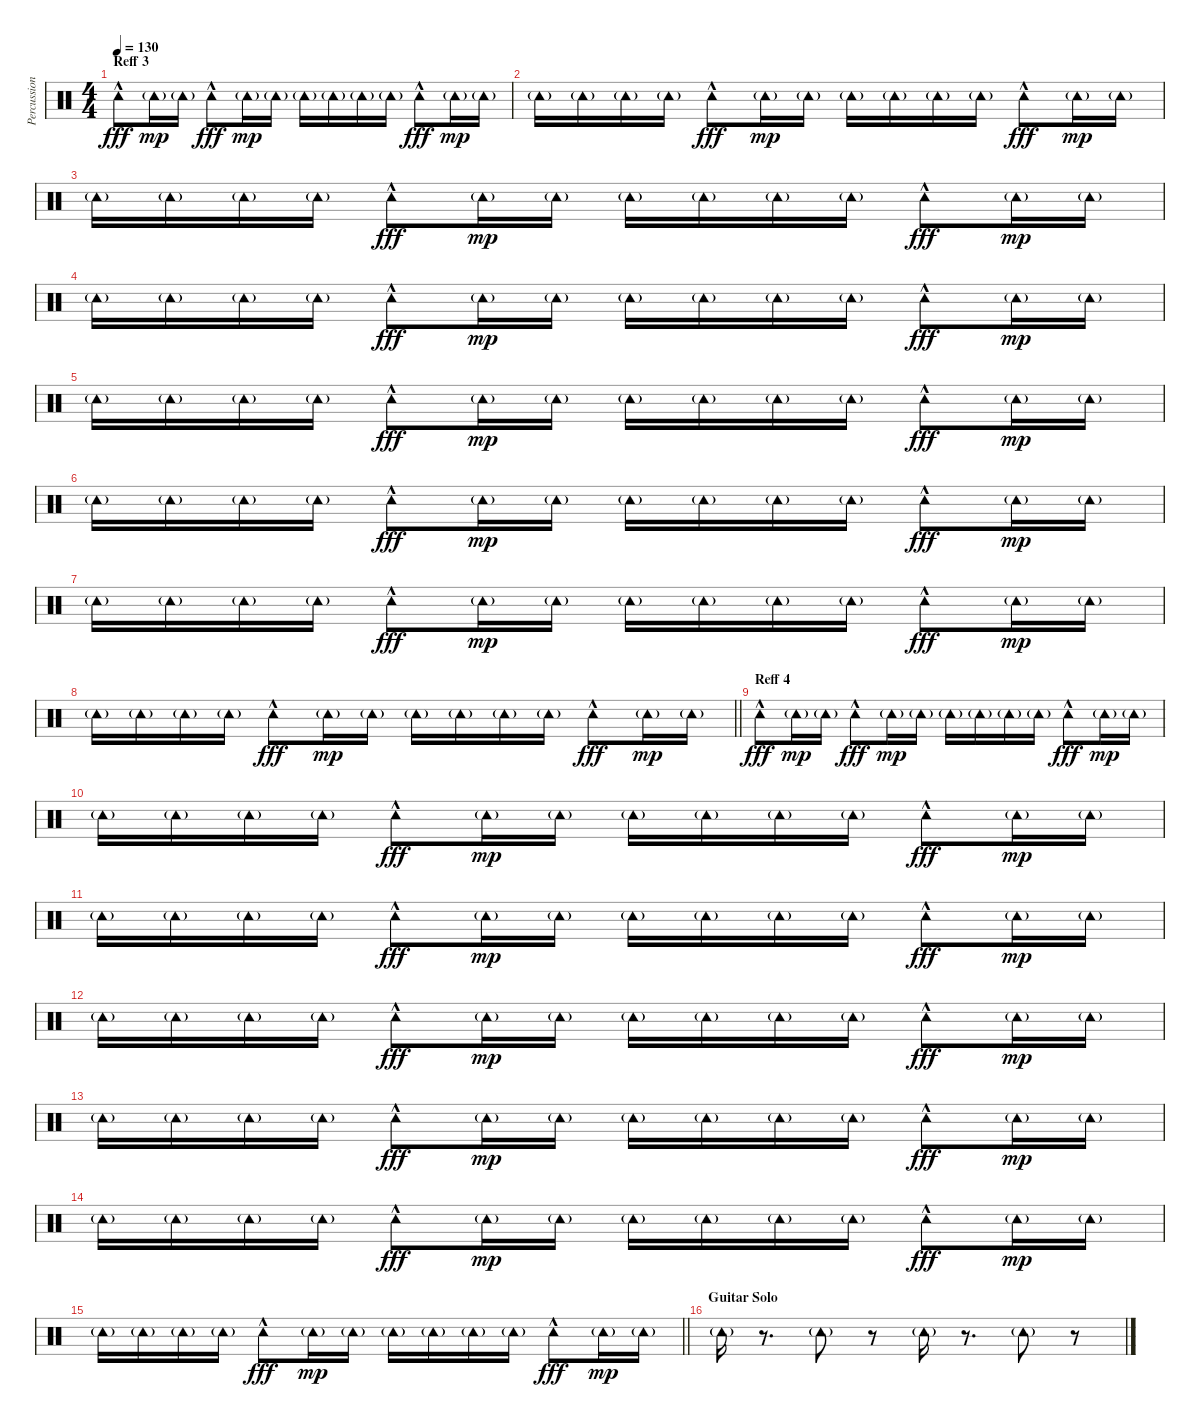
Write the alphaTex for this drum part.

\track ("Percussion 2" "Percussion") {instrument percussion}
\staff {score}
\articulation defaults
\ts (4 4)
\section ("" "Reff 3")
\tempo 130
\clef neutral
\ks c "Tambourine (hit)"{hac}.8{dy fff} "Tambourine (hit)"{g}.16{dy mp} "Tambourine (hit)"{g}.16 "Tambourine (hit)"{hac}.8{dy fff} "Tambourine (hit)"{g}.16{dy mp} "Tambourine (hit)"{g}.16 "Tambourine (hit)"{g}.16 "Tambourine (hit)"{g}.16 "Tambourine (hit)"{g}.16 "Tambourine (hit)"{g}.16 "Tambourine (hit)"{hac}.8{dy fff} "Tambourine (hit)"{g}.16{dy mp} "Tambourine (hit)"{g}.16
|
"Tambourine (hit)"{g}.16 "Tambourine (hit)"{g}.16 "Tambourine (hit)"{g}.16 "Tambourine (hit)"{g}.16 "Tambourine (hit)"{hac}.8{dy fff} "Tambourine (hit)"{g}.16{dy mp} "Tambourine (hit)"{g}.16 "Tambourine (hit)"{g}.16 "Tambourine (hit)"{g}.16 "Tambourine (hit)"{g}.16 "Tambourine (hit)"{g}.16 "Tambourine (hit)"{hac}.8{dy fff} "Tambourine (hit)"{g}.16{dy mp} "Tambourine (hit)"{g}.16 |
"Tambourine (hit)"{g}.16 "Tambourine (hit)"{g}.16 "Tambourine (hit)"{g}.16 "Tambourine (hit)"{g}.16 "Tambourine (hit)"{hac}.8{dy fff} "Tambourine (hit)"{g}.16{dy mp} "Tambourine (hit)"{g}.16 "Tambourine (hit)"{g}.16 "Tambourine (hit)"{g}.16 "Tambourine (hit)"{g}.16 "Tambourine (hit)"{g}.16 "Tambourine (hit)"{hac}.8{dy fff} "Tambourine (hit)"{g}.16{dy mp} "Tambourine (hit)"{g}.16 |
"Tambourine (hit)"{g}.16 "Tambourine (hit)"{g}.16 "Tambourine (hit)"{g}.16 "Tambourine (hit)"{g}.16 "Tambourine (hit)"{hac}.8{dy fff} "Tambourine (hit)"{g}.16{dy mp} "Tambourine (hit)"{g}.16 "Tambourine (hit)"{g}.16 "Tambourine (hit)"{g}.16 "Tambourine (hit)"{g}.16 "Tambourine (hit)"{g}.16 "Tambourine (hit)"{hac}.8{dy fff} "Tambourine (hit)"{g}.16{dy mp} "Tambourine (hit)"{g}.16 |
"Tambourine (hit)"{g}.16 "Tambourine (hit)"{g}.16 "Tambourine (hit)"{g}.16 "Tambourine (hit)"{g}.16 "Tambourine (hit)"{hac}.8{dy fff} "Tambourine (hit)"{g}.16{dy mp} "Tambourine (hit)"{g}.16 "Tambourine (hit)"{g}.16 "Tambourine (hit)"{g}.16 "Tambourine (hit)"{g}.16 "Tambourine (hit)"{g}.16 "Tambourine (hit)"{hac}.8{dy fff} "Tambourine (hit)"{g}.16{dy mp} "Tambourine (hit)"{g}.16 |
"Tambourine (hit)"{g}.16 "Tambourine (hit)"{g}.16 "Tambourine (hit)"{g}.16 "Tambourine (hit)"{g}.16 "Tambourine (hit)"{hac}.8{dy fff} "Tambourine (hit)"{g}.16{dy mp} "Tambourine (hit)"{g}.16 "Tambourine (hit)"{g}.16 "Tambourine (hit)"{g}.16 "Tambourine (hit)"{g}.16 "Tambourine (hit)"{g}.16 "Tambourine (hit)"{hac}.8{dy fff} "Tambourine (hit)"{g}.16{dy mp} "Tambourine (hit)"{g}.16 |
"Tambourine (hit)"{g}.16 "Tambourine (hit)"{g}.16 "Tambourine (hit)"{g}.16 "Tambourine (hit)"{g}.16 "Tambourine (hit)"{hac}.8{dy fff} "Tambourine (hit)"{g}.16{dy mp} "Tambourine (hit)"{g}.16 "Tambourine (hit)"{g}.16 "Tambourine (hit)"{g}.16 "Tambourine (hit)"{g}.16 "Tambourine (hit)"{g}.16 "Tambourine (hit)"{hac}.8{dy fff} "Tambourine (hit)"{g}.16{dy mp} "Tambourine (hit)"{g}.16 |
\barLineRight lightlight "Tambourine (hit)"{g}.16 "Tambourine (hit)"{g}.16 "Tambourine (hit)"{g}.16 "Tambourine (hit)"{g}.16 "Tambourine (hit)"{hac}.8{dy fff} "Tambourine (hit)"{g}.16{dy mp} "Tambourine (hit)"{g}.16 "Tambourine (hit)"{g}.16 "Tambourine (hit)"{g}.16 "Tambourine (hit)"{g}.16 "Tambourine (hit)"{g}.16 "Tambourine (hit)"{hac}.8{dy fff} "Tambourine (hit)"{g}.16{dy mp} "Tambourine (hit)"{g}.16
|
\section ("" "Reff 4")
"Tambourine (hit)"{hac}.8{dy fff} "Tambourine (hit)"{g}.16{dy mp} "Tambourine (hit)"{g}.16 "Tambourine (hit)"{hac}.8{dy fff} "Tambourine (hit)"{g}.16{dy mp} "Tambourine (hit)"{g}.16 "Tambourine (hit)"{g}.16 "Tambourine (hit)"{g}.16 "Tambourine (hit)"{g}.16 "Tambourine (hit)"{g}.16 "Tambourine (hit)"{hac}.8{dy fff} "Tambourine (hit)"{g}.16{dy mp} "Tambourine (hit)"{g}.16 |
"Tambourine (hit)"{g}.16 "Tambourine (hit)"{g}.16 "Tambourine (hit)"{g}.16 "Tambourine (hit)"{g}.16 "Tambourine (hit)"{hac}.8{dy fff} "Tambourine (hit)"{g}.16{dy mp} "Tambourine (hit)"{g}.16 "Tambourine (hit)"{g}.16 "Tambourine (hit)"{g}.16 "Tambourine (hit)"{g}.16 "Tambourine (hit)"{g}.16 "Tambourine (hit)"{hac}.8{dy fff} "Tambourine (hit)"{g}.16{dy mp} "Tambourine (hit)"{g}.16 |
"Tambourine (hit)"{g}.16 "Tambourine (hit)"{g}.16 "Tambourine (hit)"{g}.16 "Tambourine (hit)"{g}.16 "Tambourine (hit)"{hac}.8{dy fff} "Tambourine (hit)"{g}.16{dy mp} "Tambourine (hit)"{g}.16 "Tambourine (hit)"{g}.16 "Tambourine (hit)"{g}.16 "Tambourine (hit)"{g}.16 "Tambourine (hit)"{g}.16 "Tambourine (hit)"{hac}.8{dy fff} "Tambourine (hit)"{g}.16{dy mp} "Tambourine (hit)"{g}.16 |
"Tambourine (hit)"{g}.16 "Tambourine (hit)"{g}.16 "Tambourine (hit)"{g}.16 "Tambourine (hit)"{g}.16 "Tambourine (hit)"{hac}.8{dy fff} "Tambourine (hit)"{g}.16{dy mp} "Tambourine (hit)"{g}.16 "Tambourine (hit)"{g}.16 "Tambourine (hit)"{g}.16 "Tambourine (hit)"{g}.16 "Tambourine (hit)"{g}.16 "Tambourine (hit)"{hac}.8{dy fff} "Tambourine (hit)"{g}.16{dy mp} "Tambourine (hit)"{g}.16 |
"Tambourine (hit)"{g}.16 "Tambourine (hit)"{g}.16 "Tambourine (hit)"{g}.16 "Tambourine (hit)"{g}.16 "Tambourine (hit)"{hac}.8{dy fff} "Tambourine (hit)"{g}.16{dy mp} "Tambourine (hit)"{g}.16 "Tambourine (hit)"{g}.16 "Tambourine (hit)"{g}.16 "Tambourine (hit)"{g}.16 "Tambourine (hit)"{g}.16 "Tambourine (hit)"{hac}.8{dy fff} "Tambourine (hit)"{g}.16{dy mp} "Tambourine (hit)"{g}.16 |
"Tambourine (hit)"{g}.16 "Tambourine (hit)"{g}.16 "Tambourine (hit)"{g}.16 "Tambourine (hit)"{g}.16 "Tambourine (hit)"{hac}.8{dy fff} "Tambourine (hit)"{g}.16{dy mp} "Tambourine (hit)"{g}.16 "Tambourine (hit)"{g}.16 "Tambourine (hit)"{g}.16 "Tambourine (hit)"{g}.16 "Tambourine (hit)"{g}.16 "Tambourine (hit)"{hac}.8{dy fff} "Tambourine (hit)"{g}.16{dy mp} "Tambourine (hit)"{g}.16 |
\barLineRight lightlight "Tambourine (hit)"{g}.16 "Tambourine (hit)"{g}.16 "Tambourine (hit)"{g}.16 "Tambourine (hit)"{g}.16 "Tambourine (hit)"{hac}.8{dy fff} "Tambourine (hit)"{g}.16{dy mp} "Tambourine (hit)"{g}.16 "Tambourine (hit)"{g}.16 "Tambourine (hit)"{g}.16 "Tambourine (hit)"{g}.16 "Tambourine (hit)"{g}.16 "Tambourine (hit)"{hac}.8{dy fff} "Tambourine (hit)"{g}.16{dy mp} "Tambourine (hit)"{g}.16
|
\section ("" "Guitar Solo")
"Tambourine (hit)"{g}.16 r.8{d} "Tambourine (hit)"{g}.8 r.8 "Tambourine (hit)"{g}.16 r.8{d} "Tambourine (hit)"{g}.8 r.8
